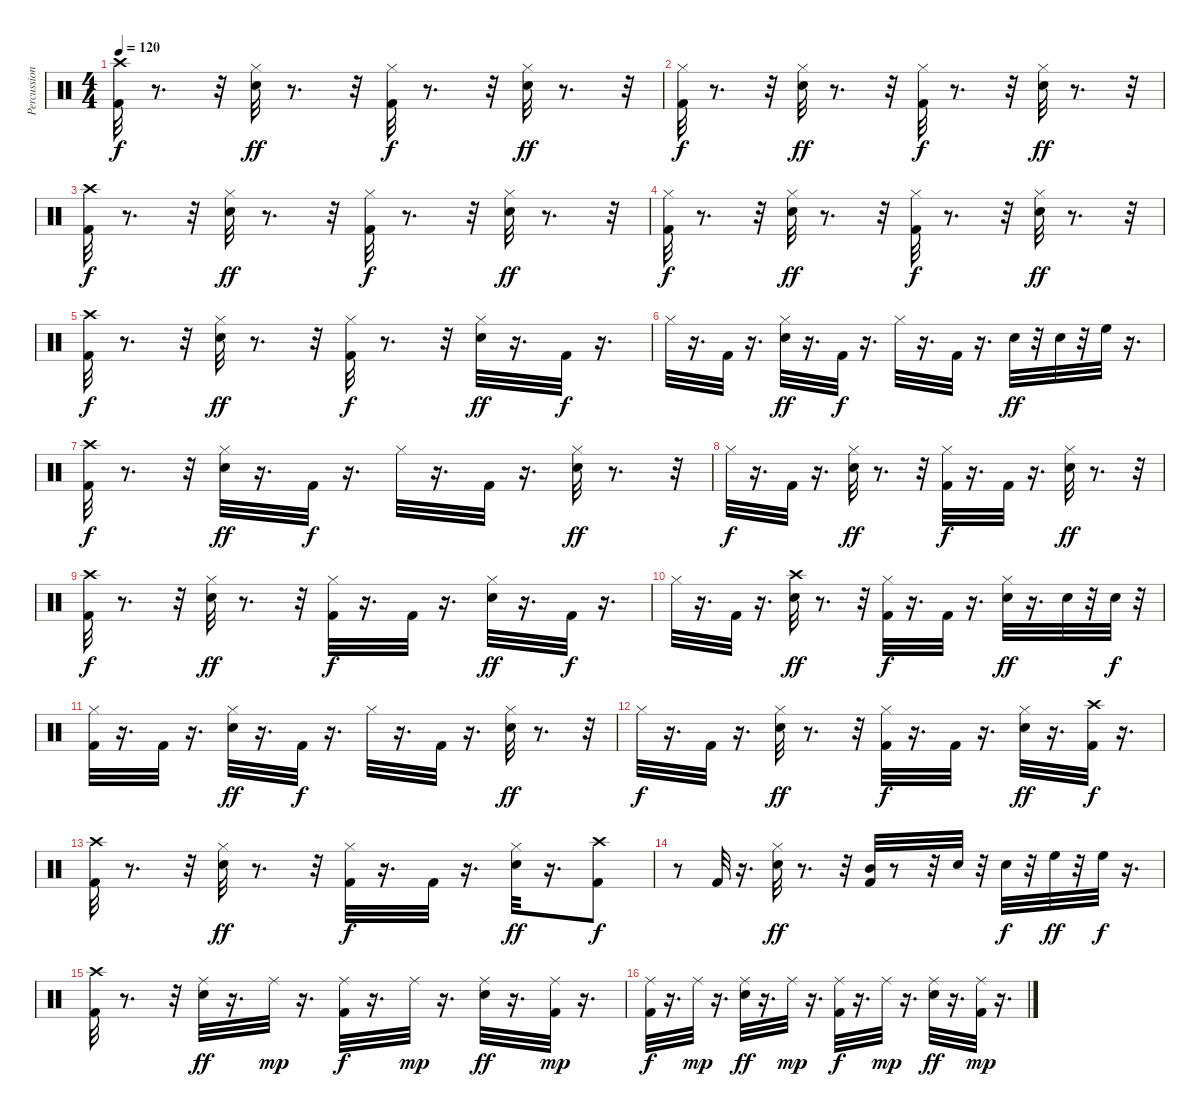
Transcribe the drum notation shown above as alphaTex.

\track ("Percussion" "Percussion") {instrument percussion}
\staff {score}
\articulation defaults
\ts (4 4)
\tempo 120
\clef neutral
\ks c
("Crash high (hit)" "Kick (hit) 2").32{dy f} r.8{d} r.32 ("Snare (hit) 2" "Hi-Hat (closed)").32{dy ff} r.8{d} r.32 ("Hi-Hat (closed)" "Kick (hit) 2").32{dy f} r.8{d} r.32 ("Snare (hit) 2" "Hi-Hat (closed)").32{dy ff} r.8{d} r.32 |
("Hi-Hat (closed)" "Kick (hit) 2").32{dy f} r.8{d} r.32 ("Snare (hit) 2" "Hi-Hat (closed)").32{dy ff} r.8{d} r.32 ("Hi-Hat (closed)" "Kick (hit) 2").32{dy f} r.8{d} r.32 ("Snare (hit) 2" "Hi-Hat (closed)").32{dy ff} r.8{d} r.32 |
("Crash high (hit)" "Kick (hit) 2").32{dy f} r.8{d} r.32 ("Snare (hit) 2" "Hi-Hat (closed)").32{dy ff} r.8{d} r.32 ("Hi-Hat (closed)" "Kick (hit) 2").32{dy f} r.8{d} r.32 ("Snare (hit) 2" "Hi-Hat (closed)").32{dy ff} r.8{d} r.32 |
("Hi-Hat (closed)" "Kick (hit) 2").32{dy f} r.8{d} r.32 ("Snare (hit) 2" "Hi-Hat (closed)").32{dy ff} r.8{d} r.32 ("Hi-Hat (closed)" "Kick (hit) 2").32{dy f} r.8{d} r.32 ("Snare (hit) 2" "Hi-Hat (closed)").32{dy ff} r.8{d} r.32 |
("Crash high (hit)" "Kick (hit) 2").32{dy f} r.8{d} r.32 ("Snare (hit) 2" "Hi-Hat (closed)").32{dy ff} r.8{d} r.32 ("Hi-Hat (closed)" "Kick (hit) 2").32{dy f} r.8{d} r.32 ("Snare (hit) 2" "Hi-Hat (closed)").32{dy ff} r.16{d} "Kick (hit) 2".32{dy f} r.16{d} |
"Hi-Hat (closed)".32 r.16{d} "Kick (hit) 2".32 r.16{d} ("Snare (hit) 2" "Hi-Hat (closed)").32{dy ff} r.16{d} "Kick (hit) 2".32{dy f} r.16{d} "Hi-Hat (closed)".32 r.16{d} "Kick (hit) 2".32 r.16{d} "Snare (hit) 2".32{dy ff} r.32 "Snare (hit) 2".32 r.32 "High Floor Tom (hit)".32 r.16{d} |
("Crash high (hit)" "Kick (hit) 2").32{dy f} r.8{d} r.32 ("Snare (hit) 2" "Hi-Hat (closed)").32{dy ff} r.16{d} "Kick (hit) 2".32{dy f} r.16{d} "Hi-Hat (closed)".32 r.16{d} "Kick (hit) 2".32 r.16{d} ("Snare (hit) 2" "Hi-Hat (closed)").32{dy ff} r.8{d} r.32 |
"Hi-Hat (closed)".32{dy f} r.16{d} "Kick (hit) 2".32 r.16{d} ("Snare (hit) 2" "Hi-Hat (closed)").32{dy ff} r.8{d} r.32 ("Hi-Hat (closed)" "Kick (hit) 2").32{dy f} r.16{d} "Kick (hit) 2".32 r.16{d} ("Snare (hit) 2" "Hi-Hat (closed)").32{dy ff} r.8{d} r.32 |
("Crash high (hit)" "Kick (hit) 2").32{dy f} r.8{d} r.32 ("Snare (hit) 2" "Hi-Hat (closed)").32{dy ff} r.8{d} r.32 ("Hi-Hat (closed)" "Kick (hit) 2").32{dy f} r.16{d} "Kick (hit) 2".32 r.16{d} ("Snare (hit) 2" "Hi-Hat (closed)").32{dy ff} r.16{d} "Kick (hit) 2".32{dy f} r.16{d} |
"Hi-Hat (closed)".32 r.16{d} "Kick (hit) 2".32 r.16{d} ("Snare (hit) 2" "Crash high (hit)").32{dy ff} r.8{d} r.32 ("Hi-Hat (closed)" "Kick (hit) 2").32{dy f} r.16{d} "Kick (hit) 2".32 r.16{d} ("Hi-Hat (closed)" "Snare (hit) 2").32{dy ff} r.16{d} "Snare (hit) 2".32 r.32 "Snare (hit) 2".32{dy f} r.32 |
("Hi-Hat (closed)" "Kick (hit) 2").32 r.16{d} "Kick (hit) 2".32 r.16{d} ("Snare (hit) 2" "Hi-Hat (closed)").32{dy ff} r.16{d} "Kick (hit) 2".32{dy f} r.16{d} "Hi-Hat (closed)".32 r.16{d} "Kick (hit) 2".32 r.16{d} ("Snare (hit) 2" "Hi-Hat (closed)").32{dy ff} r.8{d} r.32 |
"Hi-Hat (closed)".32{dy f} r.16{d} "Kick (hit) 2".32 r.16{d} ("Snare (hit) 2" "Hi-Hat (closed)").32{dy ff} r.8{d} r.32 ("Hi-Hat (closed)" "Kick (hit) 2").32{dy f} r.16{d} "Kick (hit) 2".32 r.16{d} ("Hi-Hat (closed)" "Snare (hit) 2").32{dy ff} r.16{d} ("Crash high (hit)" "Kick (hit) 2").32{dy f} r.16{d} |
("Crash high (hit)" "Kick (hit) 2").32 r.8{d} r.32 ("Snare (hit) 2" "Hi-Hat (closed)").32{dy ff} r.8{d} r.32 ("Hi-Hat (closed)" "Kick (hit) 2").32{dy f} r.16{d} "Kick (hit) 2".32 r.16{d} ("Snare (hit) 2" "Hi-Hat (closed)").32{dy ff} r.16{d} ("Crash high (hit)" "Kick (hit) 2").8{dy f} |
r.8 "Kick (hit) 2".32 r.16{d} ("Snare (hit) 2" "Hi-Hat (closed)").32{dy ff} r.8{d} r.32 ("Mid Tom (hit)" "Kick (hit) 2").32 r.8 r.32 "Snare (hit) 2".32 r.32 "Snare (hit) 2".32{dy f} r.32 "High Floor Tom (hit)".32{dy ff} r.32 "High Floor Tom (hit)".32{dy f} r.16{d} |
("Crash high (hit)" "Kick (hit) 2").32 r.8{d} r.32 ("Snare (hit) 2" "Ride (middle)").32{dy ff} r.16{d} "Ride (middle)".32{dy mp} r.16{d} ("Ride (middle)" "Kick (hit) 2").32{dy f} r.16{d} "Ride (middle)".32{dy mp} r.16{d} ("Snare (hit) 2" "Ride (middle)").32{dy ff} r.16{d} ("Ride (middle)" "Kick (hit) 2").32{dy mp} r.16{d} |
("Ride (middle)" "Kick (hit) 2").32{dy f} r.16{d} "Ride (middle)".32{dy mp} r.16{d} ("Snare (hit) 2" "Ride (middle)").32{dy ff} r.16{d} "Ride (middle)".32{dy mp} r.16{d} ("Ride (middle)" "Kick (hit) 2").32{dy f} r.16{d} "Ride (middle)".32{dy mp} r.16{d} ("Snare (hit) 2" "Ride (middle)").32{dy ff} r.16{d} ("Ride (middle)" "Kick (hit) 2").32{dy mp} r.16{d}
